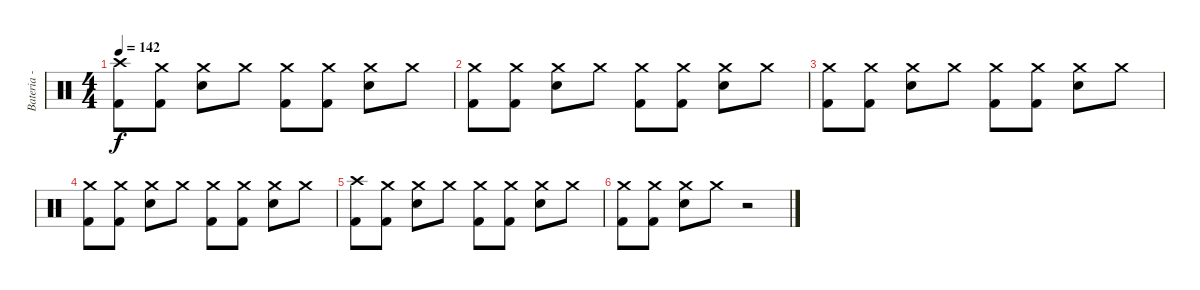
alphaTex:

\track ("Bateria - Larzon" "Bateria - ") {instrument percussion}
\staff {score}
\articulation defaults
\ts (4 4)
\tempo 142
\clef neutral
\ks c
("Kick (hit) 2" "Crash high (hit)").8{dy f volume 9} ("Kick (hit) 2" "Crash medium (hit)").8 ("Snare (hit) 2" "Crash medium (hit)").8 "Crash medium (hit)".8 ("Kick (hit) 2" "Crash medium (hit)").8 ("Kick (hit) 2" "Crash medium (hit)").8 ("Snare (hit) 2" "Crash medium (hit)").8 "Crash medium (hit)".8 |
("Kick (hit) 2" "Crash medium (hit)").8{volume 8} ("Kick (hit) 2" "Crash medium (hit)").8 ("Snare (hit) 2" "Crash medium (hit)").8 "Crash medium (hit)".8 ("Kick (hit) 2" "Crash medium (hit)").8{volume 8} ("Kick (hit) 2" "Crash medium (hit)").8 ("Snare (hit) 2" "Crash medium (hit)").8 "Crash medium (hit)".8 |
("Kick (hit) 2" "Crash medium (hit)").8{volume 7} ("Kick (hit) 2" "Crash medium (hit)").8 ("Snare (hit) 2" "Crash medium (hit)").8 "Crash medium (hit)".8 ("Kick (hit) 2" "Crash medium (hit)").8{volume 6} ("Kick (hit) 2" "Crash medium (hit)").8 ("Snare (hit) 2" "Crash medium (hit)").8 "Crash medium (hit)".8 |
("Kick (hit) 2" "Crash medium (hit)").8 ("Kick (hit) 2" "Crash medium (hit)").8 ("Snare (hit) 2" "Crash medium (hit)").8{volume 6} "Crash medium (hit)".8 ("Kick (hit) 2" "Crash medium (hit)").8{volume 5} ("Kick (hit) 2" "Crash medium (hit)").8 ("Snare (hit) 2" "Crash medium (hit)").8 "Crash medium (hit)".8 |
("Kick (hit) 2" "Crash high (hit)").8{volume 4} ("Kick (hit) 2" "Crash medium (hit)").8 ("Snare (hit) 2" "Crash medium (hit)").8{volume 4} "Crash medium (hit)".8 ("Kick (hit) 2" "Crash medium (hit)").8 ("Kick (hit) 2" "Crash medium (hit)").8 ("Snare (hit) 2" "Crash medium (hit)").8{volume 3} "Crash medium (hit)".8 |
("Kick (hit) 2" "Crash medium (hit)").8{volume 2} ("Kick (hit) 2" "Crash medium (hit)").8 ("Snare (hit) 2" "Crash medium (hit)").8 "Crash medium (hit)".8 r.2
